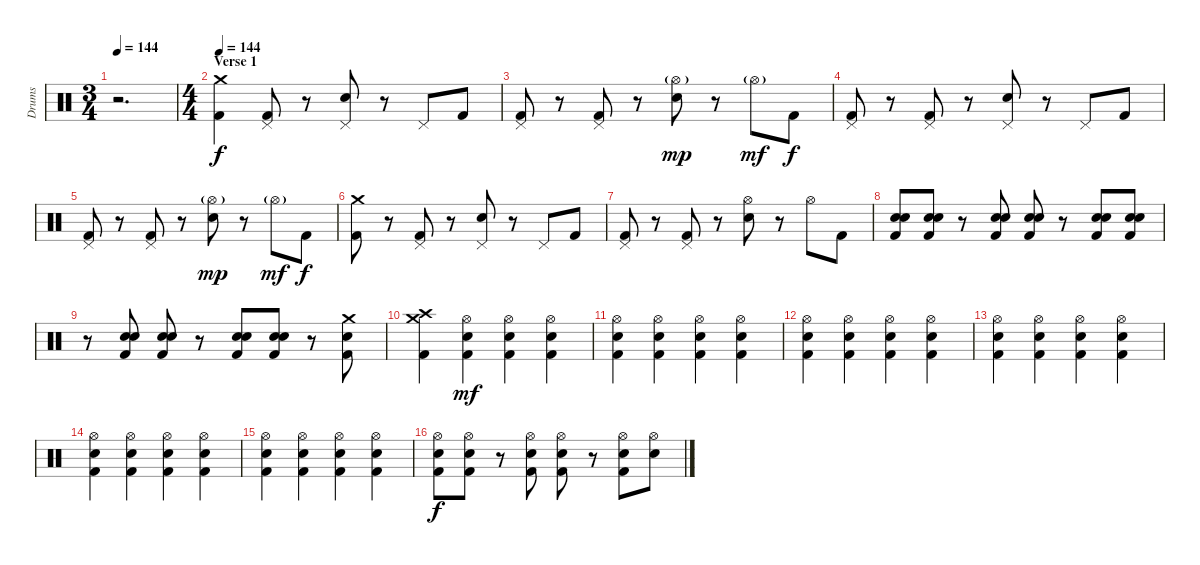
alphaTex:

\track ("Drums" "Drums") {instrument percussion}
\staff {score}
\articulation defaults
\ts (3 4)
\tempo 144
\tempo 152
\tempo 144
\clef neutral
\ks c
r.2{d dy f} |
\ts (4 4)
\section ("" "Verse 1")
\tempo 144
("Crash medium (hit)" "Kick (hit) 2").4 ("Pedal Hi-Hat (hit)" "Kick (hit) 2").8 r.8 ("Pedal Hi-Hat (hit)" "Electric Snare (hit)").8 r.8 "Pedal Hi-Hat (hit)".8 "Kick (hit) 2".8 |
("Pedal Hi-Hat (hit)" "Kick (hit) 2").8 r.8 ("Pedal Hi-Hat (hit)" "Kick (hit) 2").8 r.8 ("Hi-Hat (open)"{g} "Electric Snare (hit)").8{dy mp} r.8 "Hi-Hat (open)"{g}.8{dy mf} "Kick (hit) 2".8{dy f} |
("Pedal Hi-Hat (hit)" "Kick (hit) 2").8 r.8 ("Pedal Hi-Hat (hit)" "Kick (hit) 2").8 r.8 ("Pedal Hi-Hat (hit)" "Electric Snare (hit)").8 r.8 "Pedal Hi-Hat (hit)".8 "Kick (hit) 2".8 |
("Pedal Hi-Hat (hit)" "Kick (hit) 2").8 r.8 ("Pedal Hi-Hat (hit)" "Kick (hit) 2").8 r.8 ("Hi-Hat (open)"{g} "Electric Snare (hit)").8{dy mp} r.8 "Hi-Hat (open)"{g}.8{dy mf} "Kick (hit) 2".8{dy f} |
("Crash medium (hit)" "Kick (hit) 2").8 r.8 ("Pedal Hi-Hat (hit)" "Kick (hit) 2").8 r.8 ("Pedal Hi-Hat (hit)" "Electric Snare (hit)").8 r.8 "Pedal Hi-Hat (hit)".8 "Kick (hit) 2".8 |
("Pedal Hi-Hat (hit)" "Kick (hit) 2").8 r.8 ("Pedal Hi-Hat (hit)" "Kick (hit) 2").8 r.8 ("Hi-Hat (open)" "Electric Snare (hit)").8 r.8 "Hi-Hat (open)".8 "Kick (hit) 2".8 |
("Electric Snare (hit)" "Electric Snare (hit)" "Kick (hit) 2").8{bu 120} ("Electric Snare (hit)" "Electric Snare (hit)" "Kick (hit) 2").8{bu 120} r.8 ("Electric Snare (hit)" "Electric Snare (hit)" "Kick (hit) 2").8{bu 120} ("Electric Snare (hit)" "Electric Snare (hit)" "Kick (hit) 2").8{bu 120} r.8 ("Electric Snare (hit)" "Electric Snare (hit)" "Kick (hit) 2").8{bu 120} ("Electric Snare (hit)" "Electric Snare (hit)" "Kick (hit) 2").8{bu 120} |
r.8 ("Electric Snare (hit)" "Electric Snare (hit)" "Kick (hit) 2").8{bu 120} ("Electric Snare (hit)" "Electric Snare (hit)" "Kick (hit) 2").8{bu 120} r.8 ("Electric Snare (hit)" "Electric Snare (hit)" "Kick (hit) 2").8{bu 120} ("Electric Snare (hit)" "Electric Snare (hit)" "Kick (hit) 2").8{bu 120} r.8 ("Crash medium (hit)" "Electric Snare (hit)" "Kick (hit) 2").8 |
("Crash medium (hit)" "Crash high (hit)" "Kick (hit) 2").4 ("Hi-Hat (open)" "Electric Snare (hit)" "Kick (hit) 2").4{dy mf} ("Hi-Hat (open)" "Electric Snare (hit)" "Kick (hit) 2").4 ("Hi-Hat (open)" "Electric Snare (hit)" "Kick (hit) 2").4 |
("Hi-Hat (open)" "Electric Snare (hit)" "Kick (hit) 2").4 ("Hi-Hat (open)" "Electric Snare (hit)" "Kick (hit) 2").4 ("Hi-Hat (open)" "Electric Snare (hit)" "Kick (hit) 2").4 ("Hi-Hat (open)" "Electric Snare (hit)" "Kick (hit) 2").4 |
("Hi-Hat (open)" "Electric Snare (hit)" "Kick (hit) 2").4 ("Hi-Hat (open)" "Electric Snare (hit)" "Kick (hit) 2").4 ("Hi-Hat (open)" "Electric Snare (hit)" "Kick (hit) 2").4 ("Hi-Hat (open)" "Electric Snare (hit)" "Kick (hit) 2").4 |
("Hi-Hat (open)" "Electric Snare (hit)" "Kick (hit) 2").4 ("Hi-Hat (open)" "Electric Snare (hit)" "Kick (hit) 2").4 ("Hi-Hat (open)" "Electric Snare (hit)" "Kick (hit) 2").4 ("Hi-Hat (open)" "Electric Snare (hit)" "Kick (hit) 2").4 |
("Hi-Hat (open)" "Electric Snare (hit)" "Kick (hit) 2").4 ("Hi-Hat (open)" "Electric Snare (hit)" "Kick (hit) 2").4 ("Hi-Hat (open)" "Electric Snare (hit)" "Kick (hit) 2").4 ("Hi-Hat (open)" "Electric Snare (hit)" "Kick (hit) 2").4 |
("Hi-Hat (open)" "Electric Snare (hit)" "Kick (hit) 2").4 ("Hi-Hat (open)" "Electric Snare (hit)" "Kick (hit) 2").4 ("Hi-Hat (open)" "Electric Snare (hit)" "Kick (hit) 2").4 ("Hi-Hat (open)" "Electric Snare (hit)" "Kick (hit) 2").4 |
("Hi-Hat (open)" "Electric Snare (hit)" "Kick (hit) 2").8{dy f} ("Hi-Hat (open)" "Electric Snare (hit)" "Kick (hit) 2").8 r.8 ("Hi-Hat (open)" "Electric Snare (hit)" "Kick (hit) 2").8 ("Hi-Hat (open)" "Electric Snare (hit)" "Kick (hit) 2").8 r.8 ("Hi-Hat (open)" "Electric Snare (hit)" "Kick (hit) 2").8 ("Hi-Hat (open)" "Electric Snare (hit)").8
